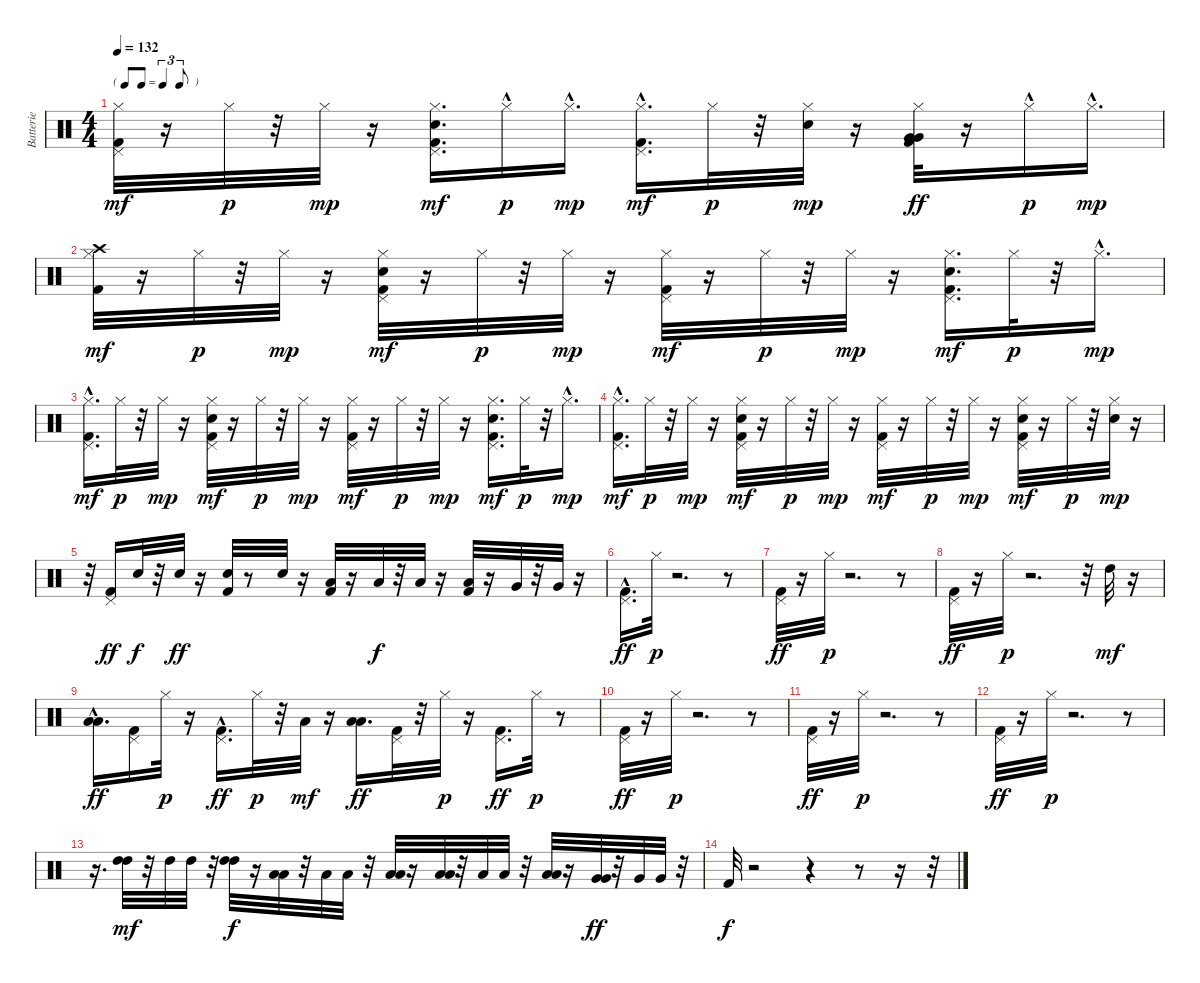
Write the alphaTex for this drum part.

\track ("Batterie" "Batterie") {instrument percussion}
\staff {score}
\articulation defaults
\ts (4 4)
\tf triplet8th
\tempo 132
\clef neutral
\ks c
("Kick (hit) 2" "Hi-Hat (closed)" "Pedal Hi-Hat (hit)").32{dy mf} r.16 "Hi-Hat (closed)".32{dy p} r.32 "Hi-Hat (closed)".32{dy mp} r.16 ("Kick (hit) 2" "Snare (hit) 2" "Hi-Hat (closed)" "Pedal Hi-Hat (hit)").16{d dy mf} "Hi-Hat (closed)"{hac}.16{dy p} "Hi-Hat (closed)"{hac}.16{d dy mp} ("Kick (hit) 2"{hac} "Hi-Hat (closed)"{hac} "Pedal Hi-Hat (hit)"{hac}).16{d dy mf} "Hi-Hat (closed)".32{dy p} r.32 ("Snare (hit) 2" "Hi-Hat (closed)").32{dy mp} r.16 ("Kick (hit) 2" "Hi-Hat (closed)" "Very Low Tom (hit)" "Very Low Tom (hit)").32{dy ff} r.16 "Hi-Hat (closed)"{hac}.16{dy p} "Hi-Hat (closed)"{hac}.16{d dy mp} |
("Kick (hit) 2" "Hi-Hat (closed)" "Crash high (hit)").32{dy mf} r.16 "Hi-Hat (closed)".32{dy p} r.32 "Hi-Hat (closed)".32{dy mp} r.16 ("Kick (hit) 2" "Snare (hit) 2" "Hi-Hat (closed)" "Pedal Hi-Hat (hit)").32{dy mf} r.16 "Hi-Hat (closed)".32{dy p} r.32 "Hi-Hat (closed)".32{dy mp} r.16 ("Kick (hit) 2" "Hi-Hat (closed)" "Pedal Hi-Hat (hit)").32{dy mf} r.16 "Hi-Hat (closed)".32{dy p} r.32 "Hi-Hat (closed)".32{dy mp} r.16 ("Kick (hit) 2" "Snare (hit) 2" "Hi-Hat (closed)" "Pedal Hi-Hat (hit)").16{d dy mf} "Hi-Hat (closed)".32{dy p} r.32 "Hi-Hat (closed)"{hac}.16{d dy mp} |
("Kick (hit) 2"{hac} "Hi-Hat (closed)"{hac} "Pedal Hi-Hat (hit)"{hac}).16{d dy mf} "Hi-Hat (closed)".32{dy p} r.32 "Hi-Hat (closed)".32{dy mp} r.16 ("Kick (hit) 2" "Snare (hit) 2" "Hi-Hat (closed)" "Pedal Hi-Hat (hit)").32{dy mf} r.16 "Hi-Hat (closed)".32{dy p} r.32 "Hi-Hat (closed)".32{dy mp} r.16 ("Kick (hit) 2" "Hi-Hat (closed)" "Pedal Hi-Hat (hit)").32{dy mf} r.16 "Hi-Hat (closed)".32{dy p} r.32 "Hi-Hat (closed)".32{dy mp} r.16 ("Kick (hit) 2" "Snare (hit) 2" "Hi-Hat (closed)" "Pedal Hi-Hat (hit)").16{d dy mf} "Hi-Hat (closed)".32{dy p} r.32 "Hi-Hat (closed)"{hac}.16{d dy mp} |
("Kick (hit) 2" "Hi-Hat (closed)"{hac} "Pedal Hi-Hat (hit)"{hac}).16{d dy mf} "Hi-Hat (closed)".32{dy p} r.32 "Hi-Hat (closed)".32{dy mp} r.16 ("Kick (hit) 2" "Snare (hit) 2" "Hi-Hat (closed)" "Pedal Hi-Hat (hit)").32{dy mf} r.16 "Hi-Hat (closed)".32{dy p} r.32 "Hi-Hat (closed)".32{dy mp} r.16 ("Kick (hit) 2" "Hi-Hat (closed)" "Pedal Hi-Hat (hit)").32{dy mf} r.16 "Hi-Hat (closed)".32{dy p} r.32 "Hi-Hat (closed)".32{dy mp} r.16 ("Kick (hit) 2" "Snare (hit) 2" "Hi-Hat (closed)" "Pedal Hi-Hat (hit)").32{dy mf} r.16 "Hi-Hat (closed)".32{dy p} r.32 ("Snare (hit) 2" "Hi-Hat (closed)").32{dy mp} r.16 |
r.32 ("Kick (hit) 2" "Pedal Hi-Hat (hit)").16{dy ff} "Snare (hit) 2".32{dy f} r.32 "Snare (hit) 2".32{dy ff} r.16 ("Kick (hit) 2" "Snare (hit) 2").32 r.8 "Snare (hit) 2".32 r.16 ("Kick (hit) 2" "Low Tom (hit)").32 r.16 "Low Tom (hit)".32{dy f} r.32 "Low Floor Tom (hit)".32 r.16 ("Kick (hit) 2" "Low Floor Tom (hit)").32 r.16 "Very Low Tom (hit)".32 r.32 "Very Low Tom (hit)".32 r.16 |
("Kick (hit) 2" "Pedal Hi-Hat (hit)"{hac}).16{d dy ff} "Hi-Hat (closed)".32{dy p} r.2{d} r.8 |
("Kick (hit) 2" "Pedal Hi-Hat (hit)").32{dy ff} r.16 "Hi-Hat (closed)".32{dy p} r.2{d} r.8 |
("Kick (hit) 2" "Pedal Hi-Hat (hit)").32{dy ff} r.16 "Hi-Hat (closed)".32{dy p} r.2{d} r.32 "High Tom (hit)".32{dy mf} r.16 |
("Low Tom (hit)" "Low Tom (hit)"{hac}).16{d dy ff} ("Kick (hit) 2" "Pedal Hi-Hat (hit)").16 "Hi-Hat (closed)".32{dy p} r.16 ("Kick (hit) 2"{hac} "Pedal Hi-Hat (hit)"{hac}).16{d dy ff} "Hi-Hat (closed)".32{dy p} r.32 "Low Tom (hit)".32{dy mf} r.16 ("Low Tom (hit)" "Low Tom (hit)").16{d dy ff} ("Kick (hit) 2" "Pedal Hi-Hat (hit)").32 r.32 "Hi-Hat (closed)".32{dy p} r.16 ("Kick (hit) 2" "Pedal Hi-Hat (hit)").16{d dy ff} "Hi-Hat (closed)".32{dy p} r.8 |
("Kick (hit) 2" "Pedal Hi-Hat (hit)").32{dy ff} r.16 "Hi-Hat (closed)".32{dy p} r.2{d} r.8 |
("Kick (hit) 2" "Pedal Hi-Hat (hit)").32{dy ff} r.16 "Hi-Hat (closed)".32{dy p} r.2{d} r.8 |
("Kick (hit) 2" "Pedal Hi-Hat (hit)").32{dy ff} r.16 "Hi-Hat (closed)".32{dy p} r.2{d} r.8 |
r.16{d} ("High Tom (hit)" "High Tom (hit)").32{dy mf} r.32 "High Tom (hit)".32 "High Tom (hit)".32 r.32 ("High Tom (hit)" "High Tom (hit)").32{dy f} r.16 ("Low Tom (hit)" "Low Tom (hit)").32 r.32 "Low Tom (hit)".32 "Low Tom (hit)".32 r.32 ("Low Tom (hit)" "Low Tom (hit)").32 r.16 ("Low Floor Tom (hit)" "Low Floor Tom (hit)").32 r.32 "Low Floor Tom (hit)".32 "Low Floor Tom (hit)".32 r.32 ("Low Floor Tom (hit)" "Low Floor Tom (hit)").32 r.16 ("Very Low Tom (hit)" "Very Low Tom (hit)").32{dy ff} r.32 "Very Low Tom (hit)".32 "Very Low Tom (hit)".32 r.32 |
"Kick (hit) 2".32{dy f} r.2 r.4 r.8 r.16 r.32
